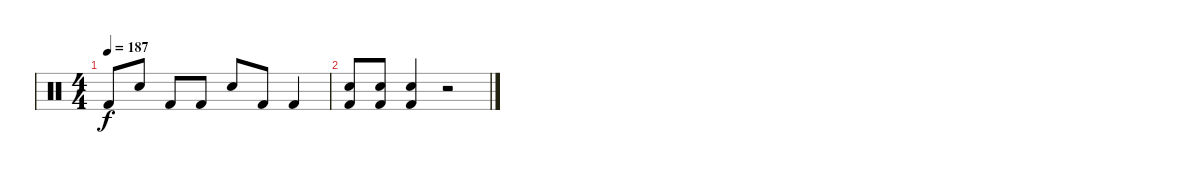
\track "" {instrument percussion}
\staff {score}
\articulation defaults
\ts (4 4)
\tempo 187
\clef neutral
\ks c "Kick (hit) 2".8{dy f} "Electric Snare (hit)".8 "Kick (hit) 2".8 "Kick (hit) 2".8 "Electric Snare (hit)".8 "Kick (hit) 2".8 "Kick (hit) 2".4
|
("Electric Snare (hit)" "Kick (hit) 2").8 ("Electric Snare (hit)" "Kick (hit) 2").8 ("Electric Snare (hit)" "Kick (hit) 2").4 r.2
